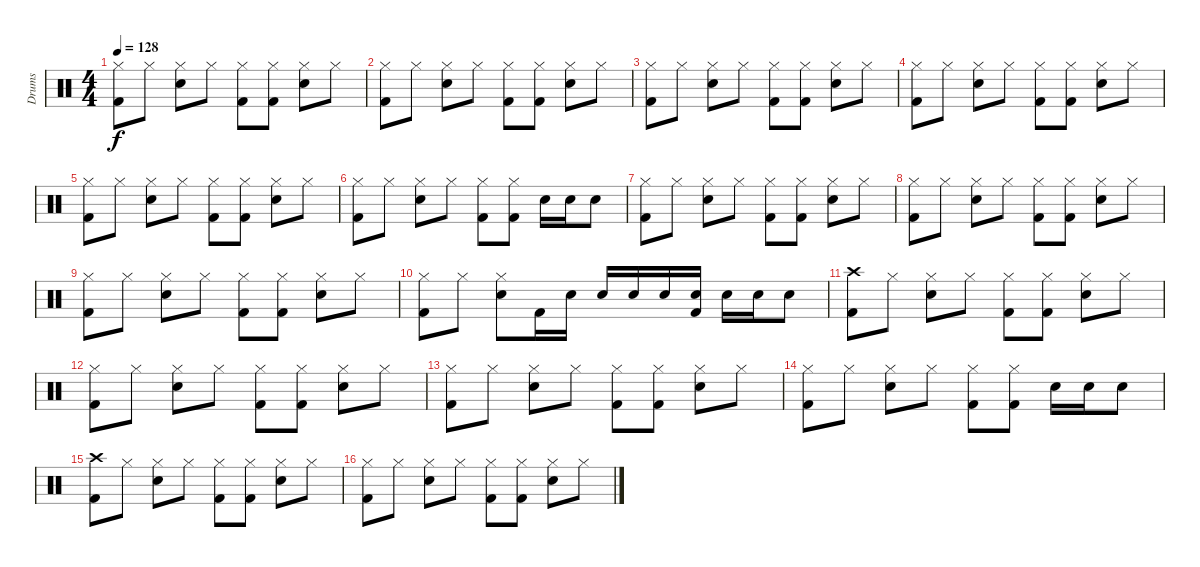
\track ("Drums" "Drums") {instrument percussion}
\staff {score}
\articulation defaults
\ts (4 4)
\tempo 128
\clef neutral
\ks c
("Hi-Hat (closed)" "Kick (hit) 2").8{dy f} "Hi-Hat (closed)".8 ("Hi-Hat (closed)" "Snare (hit) 2").8 "Hi-Hat (closed)".8 ("Hi-Hat (closed)" "Kick (hit) 2").8 ("Hi-Hat (closed)" "Kick (hit) 2").8 ("Hi-Hat (closed)" "Snare (hit) 2").8 "Hi-Hat (closed)".8 |
("Hi-Hat (closed)" "Kick (hit) 2").8 "Hi-Hat (closed)".8 ("Hi-Hat (closed)" "Snare (hit) 2").8 "Hi-Hat (closed)".8 ("Hi-Hat (closed)" "Kick (hit) 2").8 ("Hi-Hat (closed)" "Kick (hit) 2").8 ("Hi-Hat (closed)" "Snare (hit) 2").8 "Hi-Hat (closed)".8 |
("Hi-Hat (closed)" "Kick (hit) 2").8 "Hi-Hat (closed)".8 ("Hi-Hat (closed)" "Snare (hit) 2").8 "Hi-Hat (closed)".8 ("Hi-Hat (closed)" "Kick (hit) 2").8 ("Hi-Hat (closed)" "Kick (hit) 2").8 ("Hi-Hat (closed)" "Snare (hit) 2").8 "Hi-Hat (closed)".8 |
("Hi-Hat (closed)" "Kick (hit) 2").8 "Hi-Hat (closed)".8 ("Hi-Hat (closed)" "Snare (hit) 2").8 "Hi-Hat (closed)".8 ("Hi-Hat (closed)" "Kick (hit) 2").8 ("Hi-Hat (closed)" "Kick (hit) 2").8 ("Hi-Hat (closed)" "Snare (hit) 2").8 "Hi-Hat (closed)".8 |
("Hi-Hat (closed)" "Kick (hit) 2").8 "Hi-Hat (closed)".8 ("Hi-Hat (closed)" "Snare (hit) 2").8 "Hi-Hat (closed)".8 ("Hi-Hat (closed)" "Kick (hit) 2").8 ("Hi-Hat (closed)" "Kick (hit) 2").8 ("Hi-Hat (closed)" "Snare (hit) 2").8 "Hi-Hat (closed)".8 |
("Hi-Hat (closed)" "Kick (hit) 2").8 "Hi-Hat (closed)".8 ("Hi-Hat (closed)" "Snare (hit) 2").8 "Hi-Hat (closed)".8 ("Hi-Hat (closed)" "Kick (hit) 2").8 ("Hi-Hat (closed)" "Kick (hit) 2").8 "Snare (hit) 2".16 "Snare (hit) 2".16 "Snare (hit) 2".8 |
("Hi-Hat (closed)" "Kick (hit) 2").8 "Hi-Hat (closed)".8 ("Hi-Hat (closed)" "Snare (hit) 2").8 "Hi-Hat (closed)".8 ("Hi-Hat (closed)" "Kick (hit) 2").8 ("Hi-Hat (closed)" "Kick (hit) 2").8 ("Hi-Hat (closed)" "Snare (hit) 2").8 "Hi-Hat (closed)".8 |
("Hi-Hat (closed)" "Kick (hit) 2").8 "Hi-Hat (closed)".8 ("Hi-Hat (closed)" "Snare (hit) 2").8 "Hi-Hat (closed)".8 ("Hi-Hat (closed)" "Kick (hit) 2").8 ("Hi-Hat (closed)" "Kick (hit) 2").8 ("Hi-Hat (closed)" "Snare (hit) 2").8 "Hi-Hat (closed)".8 |
("Hi-Hat (closed)" "Kick (hit) 2").8 "Hi-Hat (closed)".8 ("Hi-Hat (closed)" "Snare (hit) 2").8 "Hi-Hat (closed)".8 ("Hi-Hat (closed)" "Kick (hit) 2").8 ("Hi-Hat (closed)" "Kick (hit) 2").8 ("Hi-Hat (closed)" "Snare (hit) 2").8 "Hi-Hat (closed)".8 |
("Hi-Hat (closed)" "Kick (hit) 2").8 "Hi-Hat (closed)".8 ("Hi-Hat (closed)" "Snare (hit) 2").8 "Kick (hit) 2".16 "Snare (hit) 2".16 "Snare (hit) 2".16 "Snare (hit) 2".16 "Snare (hit) 2".16 ("Snare (hit) 2" "Kick (hit) 2").16 "Snare (hit) 2".16 "Snare (hit) 2".16 "Snare (hit) 2".8 |
("Crash high (hit)" "Kick (hit) 2").8 "Hi-Hat (closed)".8 ("Hi-Hat (closed)" "Snare (hit) 2").8 "Hi-Hat (closed)".8 ("Hi-Hat (closed)" "Kick (hit) 2").8 ("Hi-Hat (closed)" "Kick (hit) 2").8 ("Hi-Hat (closed)" "Snare (hit) 2").8 "Hi-Hat (closed)".8 |
("Hi-Hat (closed)" "Kick (hit) 2").8 "Hi-Hat (closed)".8 ("Hi-Hat (closed)" "Snare (hit) 2").8 "Hi-Hat (closed)".8 ("Hi-Hat (closed)" "Kick (hit) 2").8 ("Hi-Hat (closed)" "Kick (hit) 2").8 ("Hi-Hat (closed)" "Snare (hit) 2").8 "Hi-Hat (closed)".8 |
("Hi-Hat (closed)" "Kick (hit) 2").8 "Hi-Hat (closed)".8 ("Hi-Hat (closed)" "Snare (hit) 2").8 "Hi-Hat (closed)".8 ("Hi-Hat (closed)" "Kick (hit) 2").8 ("Hi-Hat (closed)" "Kick (hit) 2").8 ("Hi-Hat (closed)" "Snare (hit) 2").8 "Hi-Hat (closed)".8 |
("Hi-Hat (closed)" "Kick (hit) 2").8 "Hi-Hat (closed)".8 ("Hi-Hat (closed)" "Snare (hit) 2").8 "Hi-Hat (closed)".8 ("Hi-Hat (closed)" "Kick (hit) 2").8 ("Hi-Hat (closed)" "Kick (hit) 2").8 "Snare (hit) 2".16 "Snare (hit) 2".16 "Snare (hit) 2".8 |
("Crash high (hit)" "Kick (hit) 2").8 "Hi-Hat (closed)".8 ("Hi-Hat (closed)" "Snare (hit) 2").8 "Hi-Hat (closed)".8 ("Hi-Hat (closed)" "Kick (hit) 2").8 ("Hi-Hat (closed)" "Kick (hit) 2").8 ("Hi-Hat (closed)" "Snare (hit) 2").8 "Hi-Hat (closed)".8 |
("Hi-Hat (closed)" "Kick (hit) 2").8 "Hi-Hat (closed)".8 ("Hi-Hat (closed)" "Snare (hit) 2").8 "Hi-Hat (closed)".8 ("Hi-Hat (closed)" "Kick (hit) 2").8 ("Hi-Hat (closed)" "Kick (hit) 2").8 ("Hi-Hat (closed)" "Snare (hit) 2").8 "Hi-Hat (closed)".8
